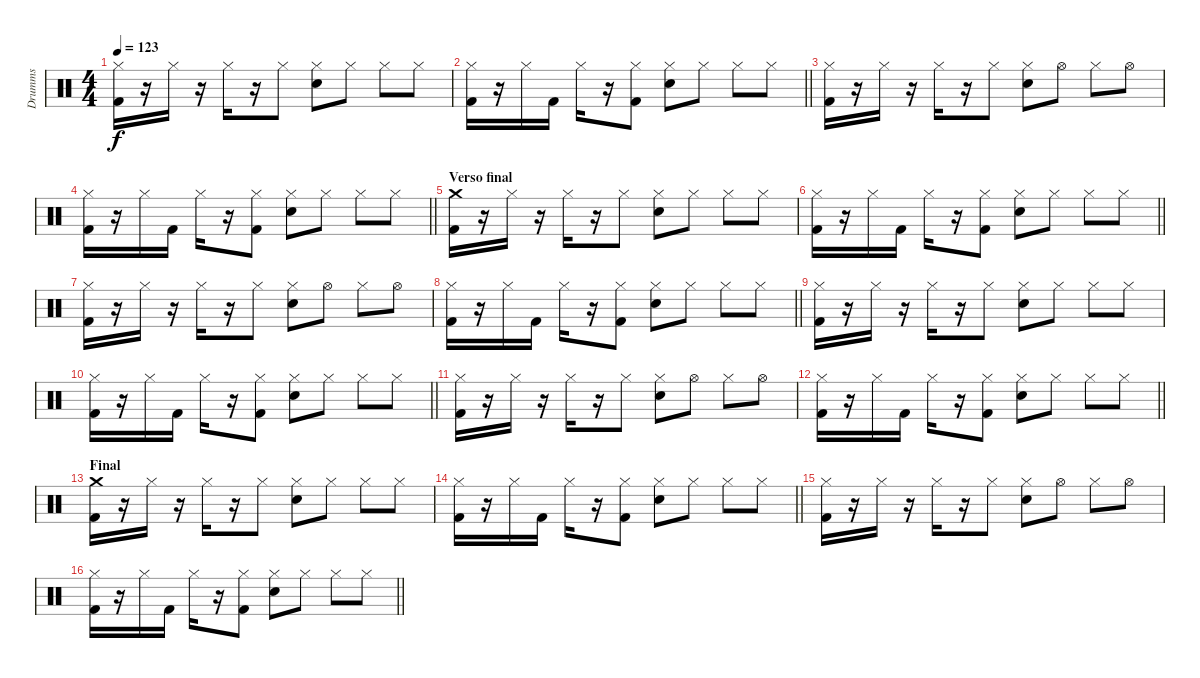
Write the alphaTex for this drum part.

\track ("Drumms" "Drumms") {instrument percussion}
\staff {score}
\articulation defaults
\ts (4 4)
\tempo 123
\clef neutral
\ks aminor
("Hi-Hat (closed)" "Kick (hit) 2").16{dy f} r.16 "Hi-Hat (closed)".16 r.16 "Hi-Hat (closed)".16 r.16 "Hi-Hat (closed)".8 ("Hi-Hat (closed)" "Snare (hit) 2").8 "Hi-Hat (closed)".8 "Hi-Hat (closed)".8 "Hi-Hat (closed)".8 |
\barLineRight lightlight
("Hi-Hat (closed)" "Kick (hit) 2").16 r.16 "Hi-Hat (closed)".16 "Kick (hit) 2".16 "Hi-Hat (closed)".16 r.16 ("Hi-Hat (closed)" "Kick (hit) 2").8 ("Hi-Hat (closed)" "Snare (hit) 2").8 "Hi-Hat (closed)".8 "Hi-Hat (closed)".8 "Hi-Hat (closed)".8 |
("Hi-Hat (closed)" "Kick (hit) 2").16 r.16 "Hi-Hat (closed)".16 r.16 "Hi-Hat (closed)".16 r.16 "Hi-Hat (closed)".8 ("Hi-Hat (closed)" "Snare (hit) 2").8 "Hi-Hat (open)".8 "Hi-Hat (closed)".8 "Hi-Hat (open)".8 |
\barLineRight lightlight
("Hi-Hat (closed)" "Kick (hit) 2").16 r.16 "Hi-Hat (closed)".16 "Kick (hit) 2".16 "Hi-Hat (closed)".16 r.16 ("Hi-Hat (closed)" "Kick (hit) 2").8 ("Hi-Hat (closed)" "Snare (hit) 2").8 "Hi-Hat (closed)".8 "Hi-Hat (closed)".8 "Hi-Hat (closed)".8 |
\section ("" "Verso final ")
("Crash medium (hit)" "Kick (hit) 2").16 r.16 "Hi-Hat (closed)".16 r.16 "Hi-Hat (closed)".16 r.16 "Hi-Hat (closed)".8 ("Hi-Hat (closed)" "Snare (hit) 2").8 "Hi-Hat (closed)".8 "Hi-Hat (closed)".8 "Hi-Hat (closed)".8 |
\barLineRight lightlight
("Hi-Hat (closed)" "Kick (hit) 2").16 r.16 "Hi-Hat (closed)".16 "Kick (hit) 2".16 "Hi-Hat (closed)".16 r.16 ("Hi-Hat (closed)" "Kick (hit) 2").8 ("Hi-Hat (closed)" "Snare (hit) 2").8 "Hi-Hat (closed)".8 "Hi-Hat (closed)".8 "Hi-Hat (closed)".8 |
("Hi-Hat (closed)" "Kick (hit) 2").16 r.16 "Hi-Hat (closed)".16 r.16 "Hi-Hat (closed)".16 r.16 "Hi-Hat (closed)".8 ("Hi-Hat (closed)" "Snare (hit) 2").8 "Hi-Hat (open)".8 "Hi-Hat (closed)".8 "Hi-Hat (open)".8 |
\barLineRight lightlight
("Hi-Hat (closed)" "Kick (hit) 2").16 r.16 "Hi-Hat (closed)".16 "Kick (hit) 2".16 "Hi-Hat (closed)".16 r.16 ("Hi-Hat (closed)" "Kick (hit) 2").8 ("Hi-Hat (closed)" "Snare (hit) 2").8 "Hi-Hat (closed)".8 "Hi-Hat (closed)".8 "Hi-Hat (closed)".8 |
("Hi-Hat (closed)" "Kick (hit) 2").16 r.16 "Hi-Hat (closed)".16 r.16 "Hi-Hat (closed)".16 r.16 "Hi-Hat (closed)".8 ("Hi-Hat (closed)" "Snare (hit) 2").8 "Hi-Hat (closed)".8 "Hi-Hat (closed)".8 "Hi-Hat (closed)".8 |
\barLineRight lightlight
("Hi-Hat (closed)" "Kick (hit) 2").16 r.16 "Hi-Hat (closed)".16 "Kick (hit) 2".16 "Hi-Hat (closed)".16 r.16 ("Hi-Hat (closed)" "Kick (hit) 2").8 ("Hi-Hat (closed)" "Snare (hit) 2").8 "Hi-Hat (closed)".8 "Hi-Hat (closed)".8 "Hi-Hat (closed)".8 |
("Hi-Hat (closed)" "Kick (hit) 2").16 r.16 "Hi-Hat (closed)".16 r.16 "Hi-Hat (closed)".16 r.16 "Hi-Hat (closed)".8 ("Hi-Hat (closed)" "Snare (hit) 2").8 "Hi-Hat (open)".8 "Hi-Hat (closed)".8 "Hi-Hat (open)".8 |
\barLineRight lightlight
("Hi-Hat (closed)" "Kick (hit) 2").16 r.16 "Hi-Hat (closed)".16 "Kick (hit) 2".16 "Hi-Hat (closed)".16 r.16 ("Hi-Hat (closed)" "Kick (hit) 2").8 ("Hi-Hat (closed)" "Snare (hit) 2").8 "Hi-Hat (closed)".8 "Hi-Hat (closed)".8 "Hi-Hat (closed)".8 |
\section ("" "Final ")
("Crash medium (hit)" "Kick (hit) 2").16 r.16 "Hi-Hat (closed)".16 r.16 "Hi-Hat (closed)".16 r.16 "Hi-Hat (closed)".8 ("Hi-Hat (closed)" "Snare (hit) 2").8 "Hi-Hat (closed)".8 "Hi-Hat (closed)".8 "Hi-Hat (closed)".8 |
\barLineRight lightlight
("Hi-Hat (closed)" "Kick (hit) 2").16 r.16 "Hi-Hat (closed)".16 "Kick (hit) 2".16 "Hi-Hat (closed)".16 r.16 ("Hi-Hat (closed)" "Kick (hit) 2").8 ("Hi-Hat (closed)" "Snare (hit) 2").8 "Hi-Hat (closed)".8 "Hi-Hat (closed)".8 "Hi-Hat (closed)".8 |
("Hi-Hat (closed)" "Kick (hit) 2").16 r.16 "Hi-Hat (closed)".16 r.16 "Hi-Hat (closed)".16 r.16 "Hi-Hat (closed)".8 ("Hi-Hat (closed)" "Snare (hit) 2").8 "Hi-Hat (open)".8 "Hi-Hat (closed)".8 "Hi-Hat (open)".8 |
\barLineRight lightlight
("Hi-Hat (closed)" "Kick (hit) 2").16 r.16 "Hi-Hat (closed)".16 "Kick (hit) 2".16 "Hi-Hat (closed)".16 r.16 ("Hi-Hat (closed)" "Kick (hit) 2").8 ("Hi-Hat (closed)" "Snare (hit) 2").8 "Hi-Hat (closed)".8 "Hi-Hat (closed)".8 "Hi-Hat (closed)".8
